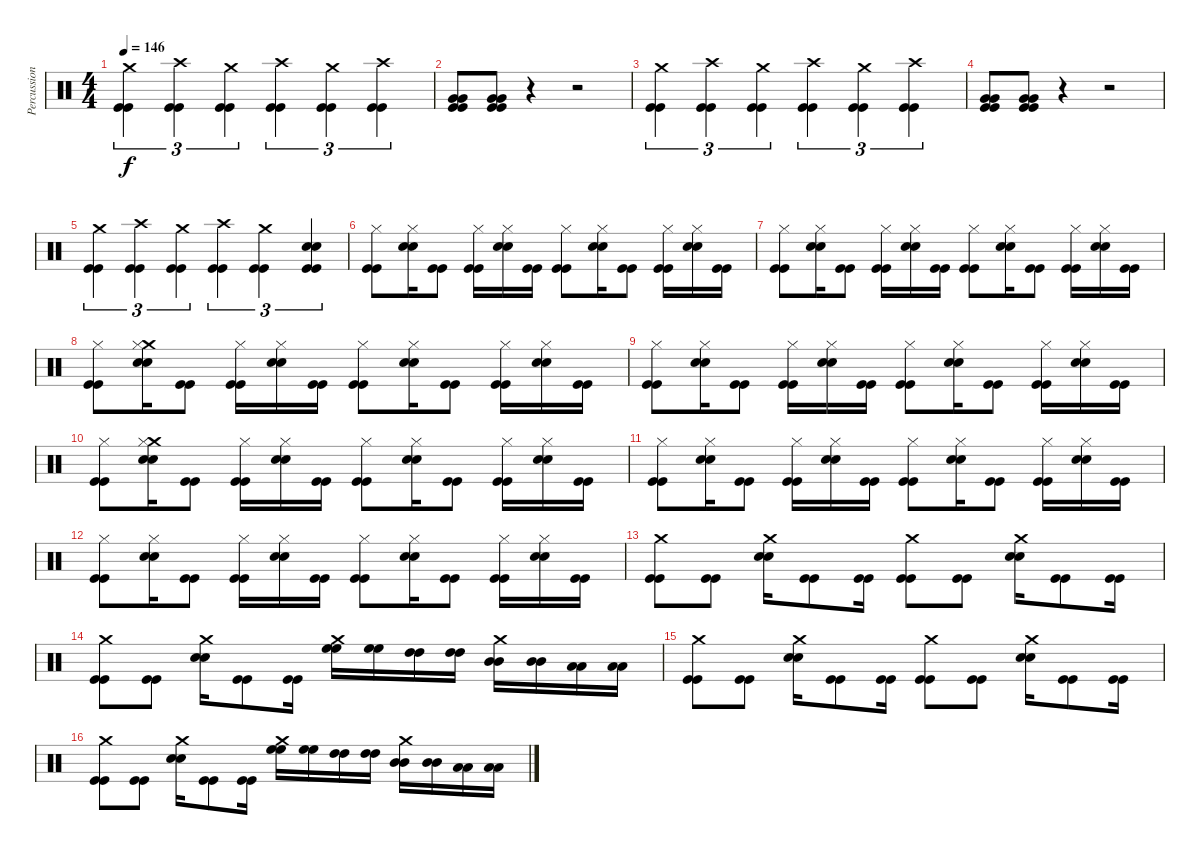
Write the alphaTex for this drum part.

\track ("Percussion" "Percussion") {instrument percussion}
\staff {score}
\articulation defaults
\ts (4 4)
\tempo 146
\clef neutral
\ks c
("Crash medium (hit)" "Kick (hit)" "Kick (hit)").4{tu (3 2) dy f} ("Crash high (hit)" "Kick (hit)" "Kick (hit)").4{tu (3 2)} ("Crash medium (hit)" "Kick (hit)" "Kick (hit)").4{tu (3 2)} ("Crash high (hit)" "Kick (hit)" "Kick (hit)").4{tu (3 2)} ("Crash medium (hit)" "Kick (hit)" "Kick (hit)").4{tu (3 2)} ("Crash high (hit)" "Kick (hit)" "Kick (hit)").4{tu (3 2)} |
("Very Low Tom (hit)" "Very Low Tom (hit)" "Kick (hit)" "Kick (hit)").8 ("Very Low Tom (hit)" "Very Low Tom (hit)" "Kick (hit)" "Kick (hit)").8 r.4 r.2 |
("Crash medium (hit)" "Kick (hit)" "Kick (hit)").4{tu (3 2)} ("Crash high (hit)" "Kick (hit)" "Kick (hit)").4{tu (3 2)} ("Crash medium (hit)" "Kick (hit)" "Kick (hit)").4{tu (3 2)} ("Crash high (hit)" "Kick (hit)" "Kick (hit)").4{tu (3 2)} ("Crash medium (hit)" "Kick (hit)" "Kick (hit)").4{tu (3 2)} ("Crash high (hit)" "Kick (hit)" "Kick (hit)").4{tu (3 2)} |
("Very Low Tom (hit)" "Very Low Tom (hit)" "Kick (hit)" "Kick (hit)").8 ("Very Low Tom (hit)" "Very Low Tom (hit)" "Kick (hit)" "Kick (hit)").8 r.4 r.2 |
("Crash medium (hit)" "Kick (hit)" "Kick (hit)").4{tu (3 2)} ("Crash high (hit)" "Kick (hit)" "Kick (hit)").4{tu (3 2)} ("Crash medium (hit)" "Kick (hit)" "Kick (hit)").4{tu (3 2)} ("Crash high (hit)" "Kick (hit)" "Kick (hit)").4{tu (3 2)} ("Crash medium (hit)" "Kick (hit)" "Kick (hit)").4{tu (3 2)} ("Snare (hit) 2" "Snare (hit) 2" "Kick (hit)" "Kick (hit)").4{tu (3 2)} |
("Hi-Hat (closed)" "Kick (hit)" "Kick (hit)").8 ("Snare (hit) 2" "Snare (hit) 2" "Hi-Hat (closed)").16 ("Kick (hit)" "Kick (hit)").8 ("Hi-Hat (closed)" "Kick (hit)" "Kick (hit)").16 ("Snare (hit) 2" "Snare (hit) 2" "Hi-Hat (closed)").16 ("Kick (hit)" "Kick (hit)").16 ("Hi-Hat (closed)" "Kick (hit)" "Kick (hit)").8 ("Snare (hit) 2" "Snare (hit) 2" "Hi-Hat (closed)").16 ("Kick (hit)" "Kick (hit)").8 ("Hi-Hat (closed)" "Kick (hit)" "Kick (hit)").16 ("Snare (hit) 2" "Snare (hit) 2" "Hi-Hat (closed)").16 ("Kick (hit)" "Kick (hit)").16 |
("Hi-Hat (closed)" "Kick (hit)" "Kick (hit)").8 ("Snare (hit) 2" "Snare (hit) 2" "Hi-Hat (closed)").16 ("Kick (hit)" "Kick (hit)").8 ("Hi-Hat (closed)" "Kick (hit)" "Kick (hit)").16 ("Snare (hit) 2" "Snare (hit) 2" "Hi-Hat (closed)").16 ("Kick (hit)" "Kick (hit)").16 ("Hi-Hat (closed)" "Kick (hit)" "Kick (hit)").8 ("Snare (hit) 2" "Snare (hit) 2" "Hi-Hat (closed)").16 ("Kick (hit)" "Kick (hit)").8 ("Hi-Hat (closed)" "Kick (hit)" "Kick (hit)").16 ("Snare (hit) 2" "Snare (hit) 2" "Hi-Hat (closed)").16 ("Kick (hit)" "Kick (hit)").16 |
("Hi-Hat (closed)" "Kick (hit)" "Kick (hit)").8 ("Crash medium (hit)" "Snare (hit) 2" "Snare (hit) 2" "Hi-Hat (closed)").16 ("Kick (hit)" "Kick (hit)").8 ("Hi-Hat (closed)" "Kick (hit)" "Kick (hit)").16 ("Snare (hit) 2" "Snare (hit) 2" "Hi-Hat (closed)").16 ("Kick (hit)" "Kick (hit)").16 ("Hi-Hat (closed)" "Kick (hit)" "Kick (hit)").8 ("Snare (hit) 2" "Snare (hit) 2" "Hi-Hat (closed)").16 ("Kick (hit)" "Kick (hit)").8 ("Hi-Hat (closed)" "Kick (hit)" "Kick (hit)").16 ("Snare (hit) 2" "Snare (hit) 2" "Hi-Hat (closed)").16 ("Kick (hit)" "Kick (hit)").16 |
("Hi-Hat (closed)" "Kick (hit)" "Kick (hit)").8 ("Snare (hit) 2" "Snare (hit) 2" "Hi-Hat (closed)").16 ("Kick (hit)" "Kick (hit)").8 ("Hi-Hat (closed)" "Kick (hit)" "Kick (hit)").16 ("Snare (hit) 2" "Snare (hit) 2" "Hi-Hat (closed)").16 ("Kick (hit)" "Kick (hit)").16 ("Hi-Hat (closed)" "Kick (hit)" "Kick (hit)").8 ("Snare (hit) 2" "Snare (hit) 2" "Hi-Hat (closed)").16 ("Kick (hit)" "Kick (hit)").8 ("Hi-Hat (closed)" "Kick (hit)" "Kick (hit)").16 ("Snare (hit) 2" "Snare (hit) 2" "Hi-Hat (closed)").16 ("Kick (hit)" "Kick (hit)").16 |
("Hi-Hat (closed)" "Kick (hit)" "Kick (hit)").8 ("Crash medium (hit)" "Snare (hit) 2" "Snare (hit) 2" "Hi-Hat (closed)").16 ("Kick (hit)" "Kick (hit)").8 ("Hi-Hat (closed)" "Kick (hit)" "Kick (hit)").16 ("Snare (hit) 2" "Snare (hit) 2" "Hi-Hat (closed)").16 ("Kick (hit)" "Kick (hit)").16 ("Hi-Hat (closed)" "Kick (hit)" "Kick (hit)").8 ("Snare (hit) 2" "Snare (hit) 2" "Hi-Hat (closed)").16 ("Kick (hit)" "Kick (hit)").8 ("Hi-Hat (closed)" "Kick (hit)" "Kick (hit)").16 ("Snare (hit) 2" "Snare (hit) 2" "Hi-Hat (closed)").16 ("Kick (hit)" "Kick (hit)").16 |
("Hi-Hat (closed)" "Kick (hit)" "Kick (hit)").8 ("Snare (hit) 2" "Snare (hit) 2" "Hi-Hat (closed)").16 ("Kick (hit)" "Kick (hit)").8 ("Hi-Hat (closed)" "Kick (hit)" "Kick (hit)").16 ("Snare (hit) 2" "Snare (hit) 2" "Hi-Hat (closed)").16 ("Kick (hit)" "Kick (hit)").16 ("Hi-Hat (closed)" "Kick (hit)" "Kick (hit)").8 ("Snare (hit) 2" "Snare (hit) 2" "Hi-Hat (closed)").16 ("Kick (hit)" "Kick (hit)").8 ("Hi-Hat (closed)" "Kick (hit)" "Kick (hit)").16 ("Snare (hit) 2" "Snare (hit) 2" "Hi-Hat (closed)").16 ("Kick (hit)" "Kick (hit)").16 |
("Hi-Hat (closed)" "Kick (hit)" "Kick (hit)").8 ("Snare (hit) 2" "Snare (hit) 2" "Hi-Hat (closed)").16 ("Kick (hit)" "Kick (hit)").8 ("Hi-Hat (closed)" "Kick (hit)" "Kick (hit)").16 ("Snare (hit) 2" "Snare (hit) 2" "Hi-Hat (closed)").16 ("Kick (hit)" "Kick (hit)").16 ("Hi-Hat (closed)" "Kick (hit)" "Kick (hit)").8 ("Snare (hit) 2" "Snare (hit) 2" "Hi-Hat (closed)").16 ("Kick (hit)" "Kick (hit)").8 ("Hi-Hat (closed)" "Kick (hit)" "Kick (hit)").16 ("Snare (hit) 2" "Snare (hit) 2" "Hi-Hat (closed)").16 ("Kick (hit)" "Kick (hit)").16 |
("Crash medium (hit)" "Kick (hit)" "Kick (hit)").8 ("Kick (hit)" "Kick (hit)").8 ("Crash medium (hit)" "Snare (hit) 2" "Snare (hit) 2").16 ("Kick (hit)" "Kick (hit)").8 ("Kick (hit)" "Kick (hit)").16 ("Crash medium (hit)" "Kick (hit)" "Kick (hit)").8 ("Kick (hit)" "Kick (hit)").8 ("Crash medium (hit)" "Snare (hit) 2" "Snare (hit) 2").16 ("Kick (hit)" "Kick (hit)").8 ("Kick (hit)" "Kick (hit)").16 |
("Crash medium (hit)" "Kick (hit)" "Kick (hit)").8 ("Kick (hit)" "Kick (hit)").8 ("Crash medium (hit)" "Snare (hit) 2" "Snare (hit) 2").16 ("Kick (hit)" "Kick (hit)").8 ("Kick (hit)" "Kick (hit)").16 ("Crash medium (hit)" "High Floor Tom (hit)" "High Floor Tom (hit)").16 ("High Floor Tom (hit)" "High Floor Tom (hit)").16 ("High Tom (hit)" "High Tom (hit)").16 ("High Tom (hit)" "High Tom (hit)").16 ("Crash medium (hit)" "Mid Tom (hit)" "Mid Tom (hit)").16 ("Mid Tom (hit)" "Mid Tom (hit)").16 ("Low Tom (hit)" "Low Tom (hit)").16 ("Low Tom (hit)" "Low Tom (hit)").16 |
("Crash medium (hit)" "Kick (hit)" "Kick (hit)").8 ("Kick (hit)" "Kick (hit)").8 ("Crash medium (hit)" "Snare (hit) 2" "Snare (hit) 2").16 ("Kick (hit)" "Kick (hit)").8 ("Kick (hit)" "Kick (hit)").16 ("Crash medium (hit)" "Kick (hit)" "Kick (hit)").8 ("Kick (hit)" "Kick (hit)").8 ("Crash medium (hit)" "Snare (hit) 2" "Snare (hit) 2").16 ("Kick (hit)" "Kick (hit)").8 ("Kick (hit)" "Kick (hit)").16 |
("Crash medium (hit)" "Kick (hit)" "Kick (hit)").8 ("Kick (hit)" "Kick (hit)").8 ("Crash medium (hit)" "Snare (hit) 2" "Snare (hit) 2").16 ("Kick (hit)" "Kick (hit)").8 ("Kick (hit)" "Kick (hit)").16 ("Crash medium (hit)" "High Floor Tom (hit)" "High Floor Tom (hit)").16 ("High Floor Tom (hit)" "High Floor Tom (hit)").16 ("High Tom (hit)" "High Tom (hit)").16 ("High Tom (hit)" "High Tom (hit)").16 ("Crash medium (hit)" "Mid Tom (hit)" "Mid Tom (hit)").16 ("Mid Tom (hit)" "Mid Tom (hit)").16 ("Low Tom (hit)" "Low Tom (hit)").16 ("Low Tom (hit)" "Low Tom (hit)").16
